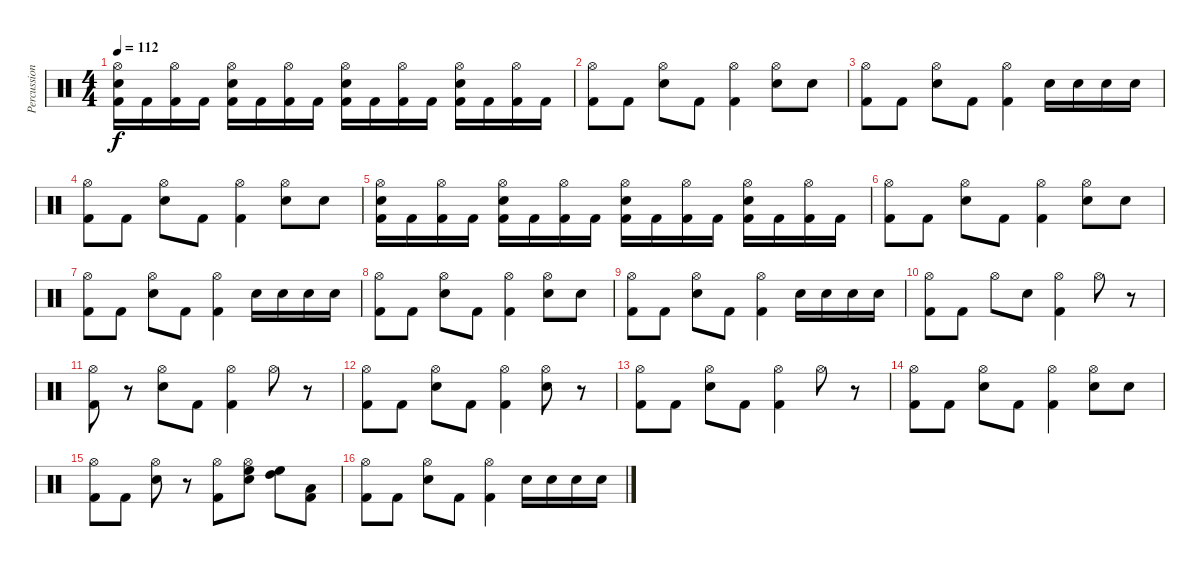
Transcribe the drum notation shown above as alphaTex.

\track ("Percussion" "Percussion") {instrument percussion}
\staff {score}
\articulation defaults
\ts (4 4)
\tempo 112
\clef neutral
\ks c
("Hi-Hat (open)" "Snare (hit) 2" "Kick (hit) 2").16{dy f} "Kick (hit) 2".16 ("Hi-Hat (open)" "Kick (hit) 2").16 "Kick (hit) 2".16 ("Hi-Hat (open)" "Snare (hit) 2" "Kick (hit) 2").16 "Kick (hit) 2".16 ("Hi-Hat (open)" "Kick (hit) 2").16 "Kick (hit) 2".16 ("Hi-Hat (open)" "Snare (hit) 2" "Kick (hit) 2").16 "Kick (hit) 2".16 ("Hi-Hat (open)" "Kick (hit) 2").16 "Kick (hit) 2".16 ("Hi-Hat (open)" "Snare (hit) 2" "Kick (hit) 2").16 "Kick (hit) 2".16 ("Hi-Hat (open)" "Kick (hit) 2").16 "Kick (hit) 2".16 |
("Hi-Hat (open)" "Kick (hit) 2").8 "Kick (hit) 2".8 ("Hi-Hat (open)" "Snare (hit) 2").8 "Kick (hit) 2".8 ("Hi-Hat (open)" "Kick (hit) 2").4 ("Hi-Hat (open)" "Snare (hit) 2").8 "Snare (hit) 2".8 |
("Hi-Hat (open)" "Kick (hit) 2").8 "Kick (hit) 2".8 ("Hi-Hat (open)" "Snare (hit) 2").8 "Kick (hit) 2".8 ("Hi-Hat (open)" "Kick (hit) 2").4 "Snare (hit) 2".16 "Snare (hit) 2".16 "Snare (hit) 2".16 "Snare (hit) 2".16 |
("Hi-Hat (open)" "Kick (hit) 2").8 "Kick (hit) 2".8 ("Hi-Hat (open)" "Snare (hit) 2").8 "Kick (hit) 2".8 ("Hi-Hat (open)" "Kick (hit) 2").4 ("Hi-Hat (open)" "Snare (hit) 2").8 "Snare (hit) 2".8 |
("Hi-Hat (open)" "Snare (hit) 2" "Kick (hit) 2").16 "Kick (hit) 2".16 ("Hi-Hat (open)" "Kick (hit) 2").16 "Kick (hit) 2".16 ("Hi-Hat (open)" "Snare (hit) 2" "Kick (hit) 2").16 "Kick (hit) 2".16 ("Hi-Hat (open)" "Kick (hit) 2").16 "Kick (hit) 2".16 ("Hi-Hat (open)" "Snare (hit) 2" "Kick (hit) 2").16 "Kick (hit) 2".16 ("Hi-Hat (open)" "Kick (hit) 2").16 "Kick (hit) 2".16 ("Hi-Hat (open)" "Snare (hit) 2" "Kick (hit) 2").16 "Kick (hit) 2".16 ("Hi-Hat (open)" "Kick (hit) 2").16 "Kick (hit) 2".16 |
("Hi-Hat (open)" "Kick (hit) 2").8 "Kick (hit) 2".8 ("Hi-Hat (open)" "Snare (hit) 2").8 "Kick (hit) 2".8 ("Hi-Hat (open)" "Kick (hit) 2").4 ("Hi-Hat (open)" "Snare (hit) 2").8 "Snare (hit) 2".8 |
("Hi-Hat (open)" "Kick (hit) 2").8 "Kick (hit) 2".8 ("Hi-Hat (open)" "Snare (hit) 2").8 "Kick (hit) 2".8 ("Hi-Hat (open)" "Kick (hit) 2").4 "Snare (hit) 2".16 "Snare (hit) 2".16 "Snare (hit) 2".16 "Snare (hit) 2".16 |
("Hi-Hat (open)" "Kick (hit) 2").8 "Kick (hit) 2".8 ("Hi-Hat (open)" "Snare (hit) 2").8 "Kick (hit) 2".8 ("Hi-Hat (open)" "Kick (hit) 2").4 ("Hi-Hat (open)" "Snare (hit) 2").8 "Snare (hit) 2".8 |
("Hi-Hat (open)" "Kick (hit) 2").8 "Kick (hit) 2".8 ("Hi-Hat (open)" "Snare (hit) 2").8 "Kick (hit) 2".8 ("Hi-Hat (open)" "Kick (hit) 2").4 "Snare (hit) 2".16 "Snare (hit) 2".16 "Snare (hit) 2".16 "Snare (hit) 2".16 |
("Hi-Hat (open)" "Kick (hit) 2").8 "Kick (hit) 2".8 "Hi-Hat (open)".8 "Snare (hit) 2".8 ("Hi-Hat (open)" "Kick (hit) 2").4 "Hi-Hat (open)".8 r.8 |
("Hi-Hat (open)" "Kick (hit) 2").8 r.8 ("Hi-Hat (open)" "Snare (hit) 2").8 "Kick (hit) 2".8 ("Hi-Hat (open)" "Kick (hit) 2").4 "Hi-Hat (open)".8 r.8 |
("Hi-Hat (open)" "Kick (hit) 2").8 "Kick (hit) 2".8 ("Hi-Hat (open)" "Snare (hit) 2").8 "Kick (hit) 2".8 ("Hi-Hat (open)" "Kick (hit) 2").4 ("Hi-Hat (open)" "Snare (hit) 2").8 r.8 |
("Hi-Hat (open)" "Kick (hit) 2").8 "Kick (hit) 2".8 ("Hi-Hat (open)" "Snare (hit) 2").8 "Kick (hit) 2".8 ("Hi-Hat (open)" "Kick (hit) 2").4 "Hi-Hat (open)".8 r.8 |
("Hi-Hat (open)" "Kick (hit) 2").8 "Kick (hit) 2".8 ("Hi-Hat (open)" "Snare (hit) 2").8 "Kick (hit) 2".8 ("Hi-Hat (open)" "Kick (hit) 2").4 ("Hi-Hat (open)" "Snare (hit) 2").8 "Snare (hit) 2".8 |
("Hi-Hat (open)" "Kick (hit) 2").8 "Kick (hit) 2".8 ("Hi-Hat (open)" "Snare (hit) 2").8 r.8 ("Hi-Hat (open)" "Kick (hit) 2").8 ("Hi-Hat (open)" "High Floor Tom (hit)" "Snare (hit) 2").8 ("High Tom (hit)" "High Floor Tom (hit)").8 ("Low Floor Tom (hit)" "Kick (hit) 2").8 |
("Hi-Hat (open)" "Kick (hit) 2").8 "Kick (hit) 2".8 ("Hi-Hat (open)" "Snare (hit) 2").8 "Kick (hit) 2".8 ("Hi-Hat (open)" "Kick (hit) 2").4 "Snare (hit) 2".16 "Snare (hit) 2".16 "Snare (hit) 2".16 "Snare (hit) 2".16
